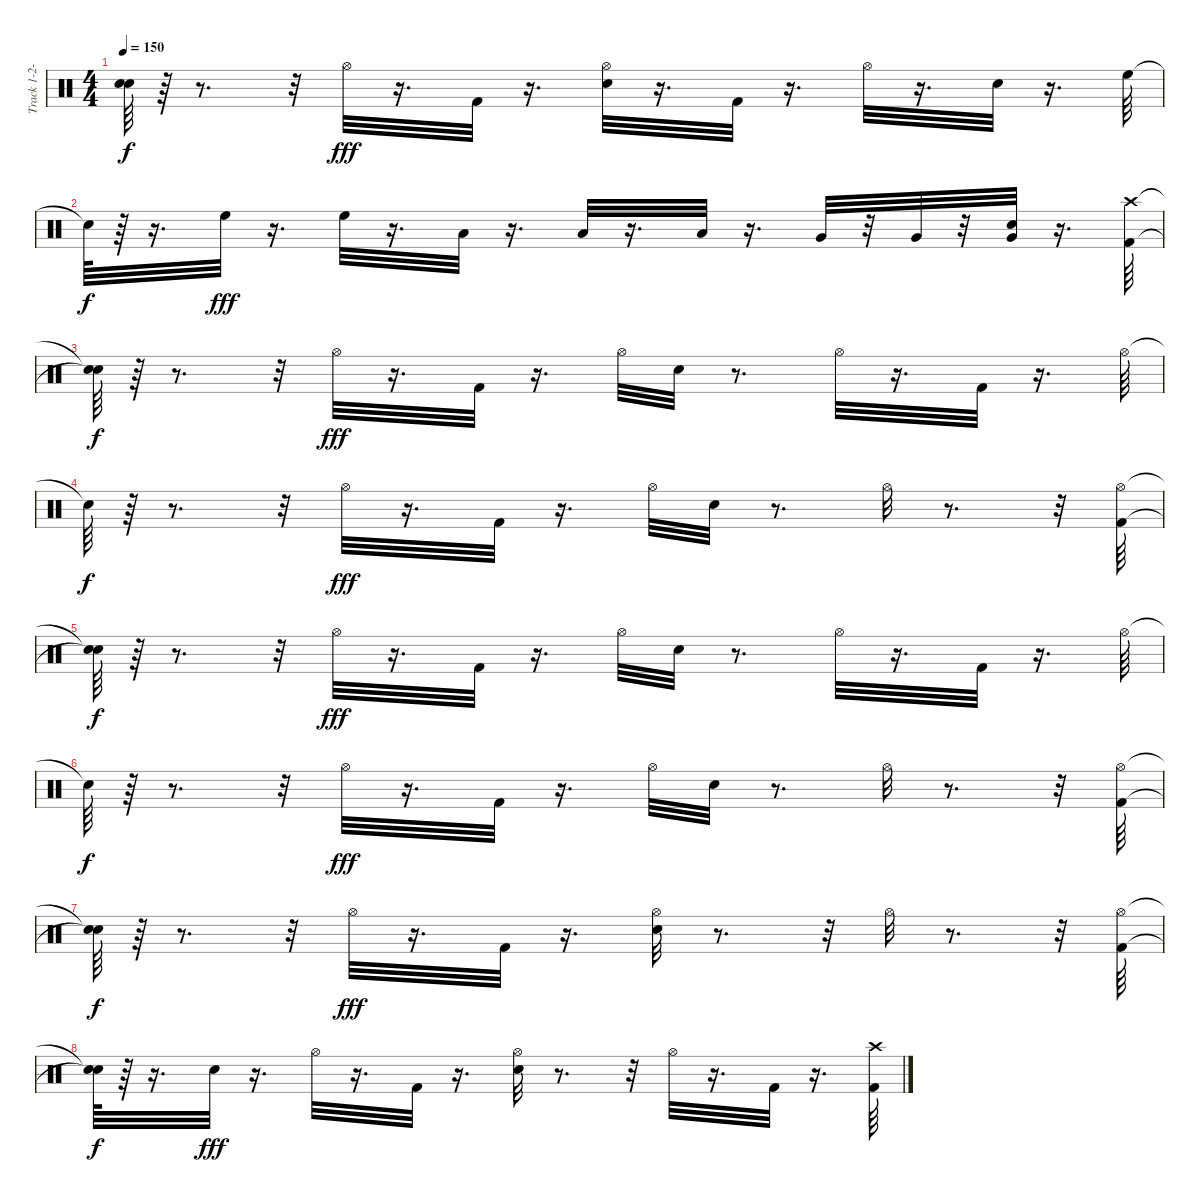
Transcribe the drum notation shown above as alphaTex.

\track ("Track 1-2-3-4-5-6-7-8-9-10-11-12-13-14-1" "Track 1-2-") {instrument percussion}
\staff {score}
\articulation defaults
\ts (4 4)
\tempo 150
\clef neutral
\ks c
("Snare (hit)"{t} "Snare (hit)"{t}).64{dy f} r.64 r.8{d} r.32 "Hi-Hat (open)".32{dy fff} r.16{d} "Kick (hit) 2".32 r.16{d} ("Hi-Hat (open)" "Snare (hit) 2").32 r.16{d} "Kick (hit) 2".32 r.16{d} "Hi-Hat (open)".32 r.16{d} "Electric Snare (hit)".32 r.16{d} "High Floor Tom (hit)".64 |
"Snare (hit)"{t}.64{dy f} r.64 r.16{d} "High Floor Tom (hit)".32{dy fff} r.16{d} "High Floor Tom (hit)".32 r.16{d} "Low Tom (hit)".32 r.16{d} "Low Tom (hit)".32 r.16{d} "Low Tom (hit)".32 r.16{d} "Very Low Tom (hit)".32 r.32 "Very Low Tom (hit)".32 r.32 ("Snare (hit) 2" "Very Low Tom (hit)").32 r.16{d} ("Crash high (hit)" "Kick (hit) 2").64 |
("Snare (hit)"{t} "Snare (hit)"{t}).64{dy f} r.64 r.8{d} r.32 "Hi-Hat (open)".32{dy fff} r.16{d} "Kick (hit) 2".32 r.16{d} "Hi-Hat (open)".32 "Snare (hit) 2".32 r.8{d} "Hi-Hat (open)".32 r.16{d} "Kick (hit) 2".32 r.16{d} "Hi-Hat (open)".64 |
"Snare (hit)"{t}.64{dy f} r.64 r.8{d} r.32 "Hi-Hat (open)".32{dy fff} r.16{d} "Kick (hit) 2".32 r.16{d} "Hi-Hat (open)".32 "Snare (hit) 2".32 r.8{d} "Hi-Hat (open)".32 r.8{d} r.32 ("Hi-Hat (open)" "Kick (hit) 2").64 |
("Snare (hit)"{t} "Snare (hit)"{t}).64{dy f} r.64 r.8{d} r.32 "Hi-Hat (open)".32{dy fff} r.16{d} "Kick (hit) 2".32 r.16{d} "Hi-Hat (open)".32 "Snare (hit) 2".32 r.8{d} "Hi-Hat (open)".32 r.16{d} "Kick (hit) 2".32 r.16{d} "Hi-Hat (open)".64 |
"Snare (hit)"{t}.64{dy f} r.64 r.8{d} r.32 "Hi-Hat (open)".32{dy fff} r.16{d} "Kick (hit) 2".32 r.16{d} "Hi-Hat (open)".32 "Snare (hit) 2".32 r.8{d} "Hi-Hat (open)".32 r.8{d} r.32 ("Hi-Hat (open)" "Kick (hit) 2").64 |
("Snare (hit)"{t} "Snare (hit)"{t}).64{dy f} r.64 r.8{d} r.32 "Hi-Hat (open)".32{dy fff} r.16{d} "Kick (hit) 2".32 r.16{d} ("Hi-Hat (open)" "Snare (hit) 2").32 r.8{d} r.32 "Hi-Hat (open)".32 r.8{d} r.32 ("Hi-Hat (open)" "Kick (hit) 2").64 |
("Snare (hit)"{t} "Snare (hit)"{t}).64{dy f} r.64 r.16{d} "Snare (hit) 2".32{dy fff} r.16{d} "Hi-Hat (open)".32 r.16{d} "Kick (hit) 2".32 r.16{d} ("Snare (hit) 2" "Hi-Hat (open)").32 r.8{d} r.32 "Hi-Hat (open)".32 r.16{d} "Kick (hit) 2".32 r.16{d} ("Crash high (hit)" "Kick (hit) 2").64
